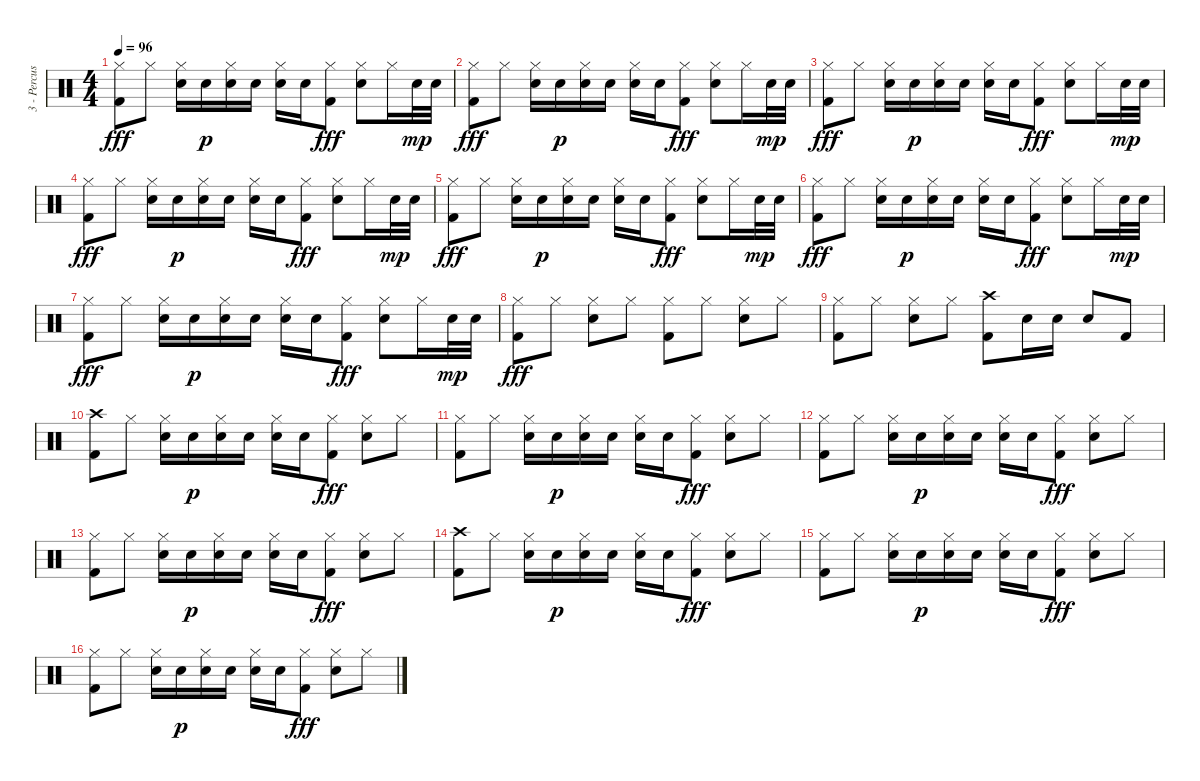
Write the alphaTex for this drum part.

\track ("3 - Percussion" "3 - Percus") {instrument percussion}
\staff {score}
\articulation defaults
\ts (4 4)
\tempo 96
\clef neutral
\ks c
("Hi-Hat (closed)" "Kick (hit) 2").8{dy fff} "Hi-Hat (closed)".8 ("Hi-Hat (closed)" "Snare (hit) 2").16 "Snare (hit) 2".16{dy p} ("Hi-Hat (closed)" "Snare (hit) 2").16 "Snare (hit) 2".16 ("Hi-Hat (closed)" "Snare (hit) 2").16 "Snare (hit) 2".16 ("Hi-Hat (closed)" "Kick (hit) 2").8{dy fff} ("Hi-Hat (closed)" "Snare (hit) 2").8 "Hi-Hat (closed)".16 "Snare (hit) 2".32{dy mp} "Snare (hit) 2".32 |
("Hi-Hat (closed)" "Kick (hit) 2").8{dy fff} "Hi-Hat (closed)".8 ("Hi-Hat (closed)" "Snare (hit) 2").16 "Snare (hit) 2".16{dy p} ("Hi-Hat (closed)" "Snare (hit) 2").16 "Snare (hit) 2".16 ("Hi-Hat (closed)" "Snare (hit) 2").16 "Snare (hit) 2".16 ("Hi-Hat (closed)" "Kick (hit) 2").8{dy fff} ("Hi-Hat (closed)" "Snare (hit) 2").8 "Hi-Hat (closed)".16 "Snare (hit) 2".32{dy mp} "Snare (hit) 2".32 |
("Hi-Hat (closed)" "Kick (hit) 2").8{dy fff} "Hi-Hat (closed)".8 ("Hi-Hat (closed)" "Snare (hit) 2").16 "Snare (hit) 2".16{dy p} ("Hi-Hat (closed)" "Snare (hit) 2").16 "Snare (hit) 2".16 ("Hi-Hat (closed)" "Snare (hit) 2").16 "Snare (hit) 2".16 ("Hi-Hat (closed)" "Kick (hit) 2").8{dy fff} ("Hi-Hat (closed)" "Snare (hit) 2").8 "Hi-Hat (closed)".16 "Snare (hit) 2".32{dy mp} "Snare (hit) 2".32 |
("Hi-Hat (closed)" "Kick (hit) 2").8{dy fff} "Hi-Hat (closed)".8 ("Hi-Hat (closed)" "Snare (hit) 2").16 "Snare (hit) 2".16{dy p} ("Hi-Hat (closed)" "Snare (hit) 2").16 "Snare (hit) 2".16 ("Hi-Hat (closed)" "Snare (hit) 2").16 "Snare (hit) 2".16 ("Hi-Hat (closed)" "Kick (hit) 2").8{dy fff} ("Hi-Hat (closed)" "Snare (hit) 2").8 "Hi-Hat (closed)".16 "Snare (hit) 2".32{dy mp} "Snare (hit) 2".32 |
("Hi-Hat (closed)" "Kick (hit) 2").8{dy fff} "Hi-Hat (closed)".8 ("Hi-Hat (closed)" "Snare (hit) 2").16 "Snare (hit) 2".16{dy p} ("Hi-Hat (closed)" "Snare (hit) 2").16 "Snare (hit) 2".16 ("Hi-Hat (closed)" "Snare (hit) 2").16 "Snare (hit) 2".16 ("Hi-Hat (closed)" "Kick (hit) 2").8{dy fff} ("Hi-Hat (closed)" "Snare (hit) 2").8 "Hi-Hat (closed)".16 "Snare (hit) 2".32{dy mp} "Snare (hit) 2".32 |
("Hi-Hat (closed)" "Kick (hit) 2").8{dy fff} "Hi-Hat (closed)".8 ("Hi-Hat (closed)" "Snare (hit) 2").16 "Snare (hit) 2".16{dy p} ("Hi-Hat (closed)" "Snare (hit) 2").16 "Snare (hit) 2".16 ("Hi-Hat (closed)" "Snare (hit) 2").16 "Snare (hit) 2".16 ("Hi-Hat (closed)" "Kick (hit) 2").8{dy fff} ("Hi-Hat (closed)" "Snare (hit) 2").8 "Hi-Hat (closed)".16 "Snare (hit) 2".32{dy mp} "Snare (hit) 2".32 |
("Hi-Hat (closed)" "Kick (hit) 2").8{dy fff} "Hi-Hat (closed)".8 ("Hi-Hat (closed)" "Snare (hit) 2").16 "Snare (hit) 2".16{dy p} ("Hi-Hat (closed)" "Snare (hit) 2").16 "Snare (hit) 2".16 ("Hi-Hat (closed)" "Snare (hit) 2").16 "Snare (hit) 2".16 ("Hi-Hat (closed)" "Kick (hit) 2").8{dy fff} ("Hi-Hat (closed)" "Snare (hit) 2").8 "Hi-Hat (closed)".16 "Snare (hit) 2".32{dy mp} "Snare (hit) 2".32 |
("Hi-Hat (closed)" "Kick (hit) 2").8{dy fff} "Hi-Hat (closed)".8 ("Hi-Hat (closed)" "Snare (hit) 2").8 "Hi-Hat (closed)".8 ("Hi-Hat (closed)" "Kick (hit) 2").8 "Hi-Hat (closed)".8 ("Hi-Hat (closed)" "Snare (hit) 2").8 "Hi-Hat (closed)".8 |
("Hi-Hat (closed)" "Kick (hit) 2").8 "Hi-Hat (closed)".8 ("Hi-Hat (closed)" "Snare (hit) 2").8 "Hi-Hat (closed)".8 ("Crash high (hit)" "Kick (hit) 2").8 "Snare (hit) 2".16 "Snare (hit) 2".16 "Snare (hit) 2".8 "Kick (hit) 2".8 |
("Crash high (hit)" "Kick (hit) 2").8 "Hi-Hat (closed)".8 ("Hi-Hat (closed)" "Snare (hit) 2").16 "Snare (hit) 2".16{dy p} ("Hi-Hat (closed)" "Snare (hit) 2").16 "Snare (hit) 2".16 ("Hi-Hat (closed)" "Snare (hit) 2").16 "Snare (hit) 2".16 ("Hi-Hat (closed)" "Kick (hit) 2").8{dy fff} ("Hi-Hat (closed)" "Snare (hit) 2").8 "Hi-Hat (closed)".8 |
("Hi-Hat (closed)" "Kick (hit) 2").8 "Hi-Hat (closed)".8 ("Hi-Hat (closed)" "Snare (hit) 2").16 "Snare (hit) 2".16{dy p} ("Hi-Hat (closed)" "Snare (hit) 2").16 "Snare (hit) 2".16 ("Hi-Hat (closed)" "Snare (hit) 2").16 "Snare (hit) 2".16 ("Hi-Hat (closed)" "Kick (hit) 2").8{dy fff} ("Hi-Hat (closed)" "Snare (hit) 2").8 "Hi-Hat (closed)".8 |
("Hi-Hat (closed)" "Kick (hit) 2").8 "Hi-Hat (closed)".8 ("Hi-Hat (closed)" "Snare (hit) 2").16 "Snare (hit) 2".16{dy p} ("Hi-Hat (closed)" "Snare (hit) 2").16 "Snare (hit) 2".16 ("Hi-Hat (closed)" "Snare (hit) 2").16 "Snare (hit) 2".16 ("Hi-Hat (closed)" "Kick (hit) 2").8{dy fff} ("Hi-Hat (closed)" "Snare (hit) 2").8 "Hi-Hat (closed)".8 |
("Hi-Hat (closed)" "Kick (hit) 2").8 "Hi-Hat (closed)".8 ("Hi-Hat (closed)" "Snare (hit) 2").16 "Snare (hit) 2".16{dy p} ("Hi-Hat (closed)" "Snare (hit) 2").16 "Snare (hit) 2".16 ("Hi-Hat (closed)" "Snare (hit) 2").16 "Snare (hit) 2".16 ("Hi-Hat (closed)" "Kick (hit) 2").8{dy fff} ("Hi-Hat (closed)" "Snare (hit) 2").8 "Hi-Hat (closed)".8 |
("Crash high (hit)" "Kick (hit) 2").8 "Hi-Hat (closed)".8 ("Hi-Hat (closed)" "Snare (hit) 2").16 "Snare (hit) 2".16{dy p} ("Hi-Hat (closed)" "Snare (hit) 2").16 "Snare (hit) 2".16 ("Hi-Hat (closed)" "Snare (hit) 2").16 "Snare (hit) 2".16 ("Hi-Hat (closed)" "Kick (hit) 2").8{dy fff} ("Hi-Hat (closed)" "Snare (hit) 2").8 "Hi-Hat (closed)".8 |
("Hi-Hat (closed)" "Kick (hit) 2").8 "Hi-Hat (closed)".8 ("Hi-Hat (closed)" "Snare (hit) 2").16 "Snare (hit) 2".16{dy p} ("Hi-Hat (closed)" "Snare (hit) 2").16 "Snare (hit) 2".16 ("Hi-Hat (closed)" "Snare (hit) 2").16 "Snare (hit) 2".16 ("Hi-Hat (closed)" "Kick (hit) 2").8{dy fff} ("Hi-Hat (closed)" "Snare (hit) 2").8 "Hi-Hat (closed)".8 |
("Hi-Hat (closed)" "Kick (hit) 2").8 "Hi-Hat (closed)".8 ("Hi-Hat (closed)" "Snare (hit) 2").16 "Snare (hit) 2".16{dy p} ("Hi-Hat (closed)" "Snare (hit) 2").16 "Snare (hit) 2".16 ("Hi-Hat (closed)" "Snare (hit) 2").16 "Snare (hit) 2".16 ("Hi-Hat (closed)" "Kick (hit) 2").8{dy fff} ("Hi-Hat (closed)" "Snare (hit) 2").8 "Hi-Hat (closed)".8
